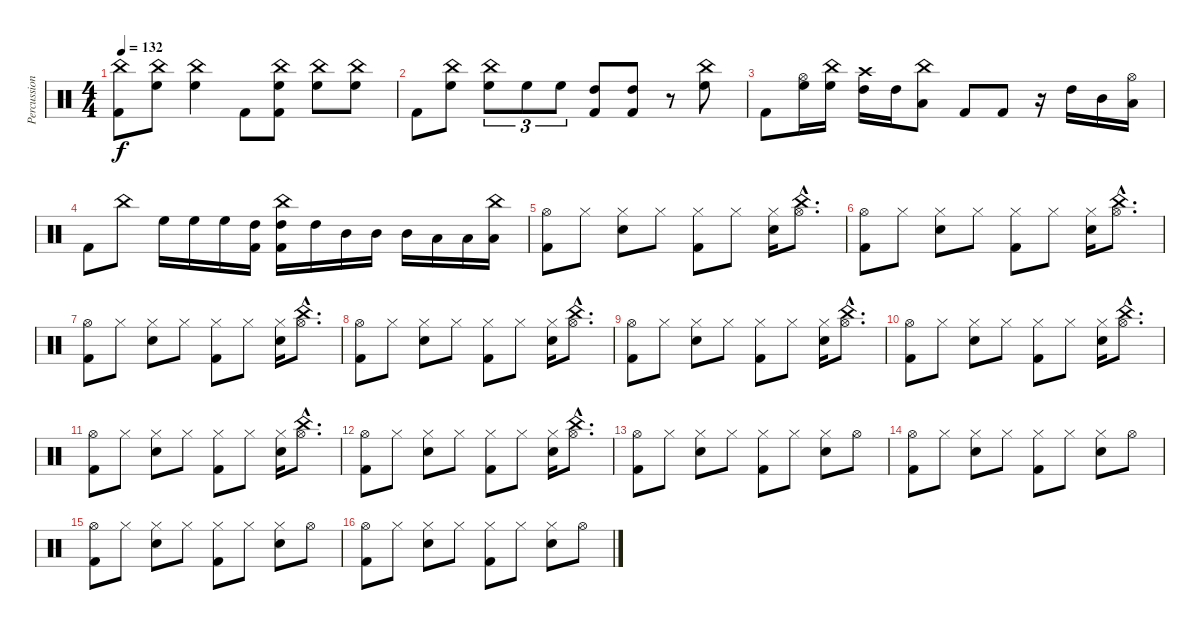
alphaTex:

\track ("Percussions" "Percussion") {instrument percussion}
\staff {score}
\articulation defaults
\ts (4 4)
\tempo 132
\clef neutral
\ks c
("China (hit)" "Kick (hit) 2").8{dy f} ("China (hit)" "High Floor Tom (hit)").8 ("China (hit)" "High Floor Tom (hit)").4 "Kick (hit) 2".8 ("China (hit)" "High Floor Tom (hit)" "Kick (hit) 2").8 ("China (hit)" "High Floor Tom (hit)").8 ("China (hit)" "High Floor Tom (hit)").8 |
"Kick (hit) 2".8 ("China (hit)" "High Floor Tom (hit)").8 ("China (hit)" "High Floor Tom (hit)").8{tu (3 2)} "High Floor Tom (hit)".8{tu (3 2)} "High Floor Tom (hit)".8{tu (3 2)} ("High Tom (hit)" "Kick (hit) 2").8 ("High Tom (hit)" "Kick (hit) 2").8 r.8 ("China (hit)" "High Floor Tom (hit)").8 |
"Kick (hit) 2".8 ("Hi-Hat (open)" "High Floor Tom (hit)").16 ("China (hit)" "High Floor Tom (hit)").16 ("Crash high (hit)" "High Tom (hit)").16 "High Tom (hit)".16 ("China (hit)" "Low Tom (hit)").8 "Kick (hit) 2".8 "Kick (hit) 2".8 r.16 "High Tom (hit)".16 "Mid Tom (hit)".16 ("Hi-Hat (open)" "Low Tom (hit)").16 |
"Kick (hit) 2".8 "China (hit)".8 "High Floor Tom (hit)".16 "High Floor Tom (hit)".16 "High Floor Tom (hit)".16 ("High Tom (hit)" "Kick (hit) 2").16 ("China (hit)" "High Tom (hit)" "Kick (hit) 2").16 "High Tom (hit)".16 "Mid Tom (hit)".16 "Mid Tom (hit)".16 "Mid Tom (hit)".16 "Low Tom (hit)".16 "Low Tom (hit)".16 ("China (hit)" "Low Tom (hit)").16 |
("Hi-Hat (open)" "Kick (hit) 2").8 "Hi-Hat (closed)".8 ("Hi-Hat (closed)" "Snare (hit) 2").8 "Hi-Hat (closed)".8 ("Hi-Hat (closed)" "Kick (hit) 2").8 "Hi-Hat (closed)".8 ("Hi-Hat (closed)" "Snare (hit) 2").16 ("Hi-Hat (open)"{hac} "China (hit)"{hac}).8{d} |
("Hi-Hat (open)" "Kick (hit) 2").8 "Hi-Hat (closed)".8 ("Hi-Hat (closed)" "Snare (hit) 2").8 "Hi-Hat (closed)".8 ("Hi-Hat (closed)" "Kick (hit) 2").8 "Hi-Hat (closed)".8 ("Hi-Hat (closed)" "Snare (hit) 2").16 ("Hi-Hat (open)"{hac} "China (hit)"{hac}).8{d} |
("Hi-Hat (open)" "Kick (hit) 2").8 "Hi-Hat (closed)".8 ("Hi-Hat (closed)" "Snare (hit) 2").8 "Hi-Hat (closed)".8 ("Hi-Hat (closed)" "Kick (hit) 2").8 "Hi-Hat (closed)".8 ("Hi-Hat (closed)" "Snare (hit) 2").16 ("Hi-Hat (open)"{hac} "China (hit)"{hac}).8{d} |
("Hi-Hat (open)" "Kick (hit) 2").8 "Hi-Hat (closed)".8 ("Hi-Hat (closed)" "Snare (hit) 2").8 "Hi-Hat (closed)".8 ("Hi-Hat (closed)" "Kick (hit) 2").8 "Hi-Hat (closed)".8 ("Hi-Hat (closed)" "Snare (hit) 2").16 ("Hi-Hat (open)"{hac} "China (hit)"{hac}).8{d} |
("Hi-Hat (open)" "Kick (hit) 2").8 "Hi-Hat (closed)".8 ("Hi-Hat (closed)" "Snare (hit) 2").8 "Hi-Hat (closed)".8 ("Hi-Hat (closed)" "Kick (hit) 2").8 "Hi-Hat (closed)".8 ("Hi-Hat (closed)" "Snare (hit) 2").16 ("Hi-Hat (open)"{hac} "China (hit)"{hac}).8{d} |
("Hi-Hat (open)" "Kick (hit) 2").8 "Hi-Hat (closed)".8 ("Hi-Hat (closed)" "Snare (hit) 2").8 "Hi-Hat (closed)".8 ("Hi-Hat (closed)" "Kick (hit) 2").8 "Hi-Hat (closed)".8 ("Hi-Hat (closed)" "Snare (hit) 2").16 ("Hi-Hat (open)"{hac} "China (hit)"{hac}).8{d} |
("Hi-Hat (open)" "Kick (hit) 2").8 "Hi-Hat (closed)".8 ("Hi-Hat (closed)" "Snare (hit) 2").8 "Hi-Hat (closed)".8 ("Hi-Hat (closed)" "Kick (hit) 2").8 "Hi-Hat (closed)".8 ("Hi-Hat (closed)" "Snare (hit) 2").16 ("Hi-Hat (open)"{hac} "China (hit)"{hac}).8{d} |
("Hi-Hat (open)" "Kick (hit) 2").8 "Hi-Hat (closed)".8 ("Hi-Hat (closed)" "Snare (hit) 2").8 "Hi-Hat (closed)".8 ("Hi-Hat (closed)" "Kick (hit) 2").8 "Hi-Hat (closed)".8 ("Hi-Hat (closed)" "Snare (hit) 2").16 ("Hi-Hat (open)"{hac} "China (hit)"{hac}).8{d} |
("Hi-Hat (open)" "Kick (hit) 2").8 "Hi-Hat (closed)".8 ("Hi-Hat (closed)" "Snare (hit) 2").8 "Hi-Hat (closed)".8 ("Hi-Hat (closed)" "Kick (hit) 2").8 "Hi-Hat (closed)".8 ("Hi-Hat (closed)" "Snare (hit) 2").8 "Hi-Hat (open)".8 |
("Hi-Hat (open)" "Kick (hit) 2").8 "Hi-Hat (closed)".8 ("Hi-Hat (closed)" "Snare (hit) 2").8 "Hi-Hat (closed)".8 ("Hi-Hat (closed)" "Kick (hit) 2").8 "Hi-Hat (closed)".8 ("Hi-Hat (closed)" "Snare (hit) 2").8 "Hi-Hat (open)".8 |
("Hi-Hat (open)" "Kick (hit) 2").8 "Hi-Hat (closed)".8 ("Hi-Hat (closed)" "Snare (hit) 2").8 "Hi-Hat (closed)".8 ("Hi-Hat (closed)" "Kick (hit) 2").8 "Hi-Hat (closed)".8 ("Hi-Hat (closed)" "Snare (hit) 2").8 "Hi-Hat (open)".8 |
("Hi-Hat (open)" "Kick (hit) 2").8 "Hi-Hat (closed)".8 ("Hi-Hat (closed)" "Snare (hit) 2").8 "Hi-Hat (closed)".8 ("Hi-Hat (closed)" "Kick (hit) 2").8 "Hi-Hat (closed)".8 ("Hi-Hat (closed)" "Snare (hit) 2").8 "Hi-Hat (open)".8
